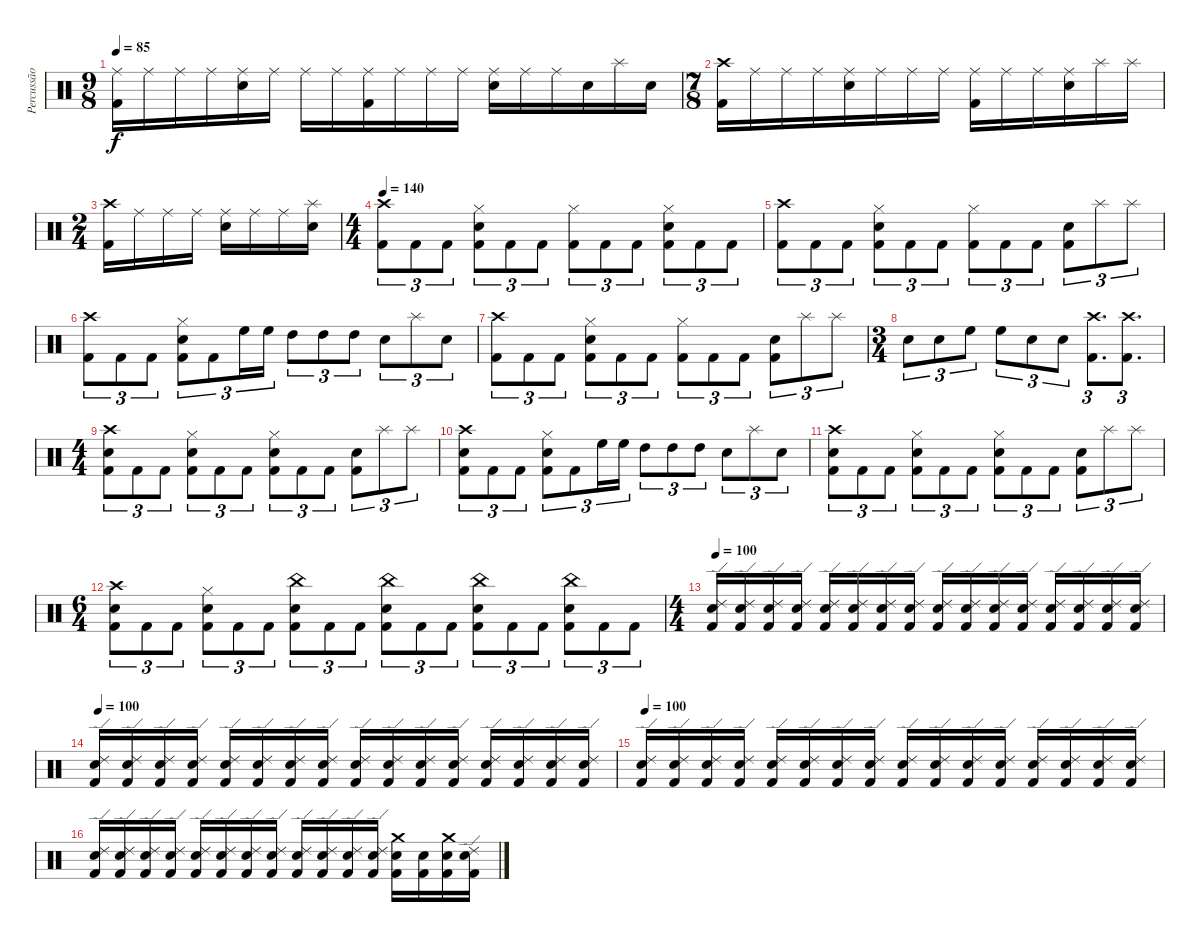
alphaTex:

\track ("Percussão" "Percussão") {instrument percussion}
\staff {score}
\articulation defaults
\ts (9 8)
\tempo 85
\clef neutral
\ks c
("Ride (middle)" "Kick (hit) 2").16{dy f} "Ride (middle)".16 "Ride (middle)".16 "Ride (middle)".16 ("Ride (middle)" "Electric Snare (hit)").16 "Ride (middle)".16 "Ride (middle)".16 "Ride (middle)".16 ("Ride (middle)" "Kick (hit) 2").16 "Ride (middle)".16 "Ride (middle)".16 "Ride (middle)".16 ("Ride (middle)" "Electric Snare (hit)").16 "Ride (middle)".16 "Ride (middle)".16 "Electric Snare (hit)".16 "Splash (hit)".16 "Electric Snare (hit)".16 |
\ts (7 8)
("Crash high (hit)" "Kick (hit) 2").16 "Ride (middle)".16 "Ride (middle)".16 "Ride (middle)".16 ("Ride (middle)" "Electric Snare (hit)").16 "Ride (middle)".16 "Ride (middle)".16 "Ride (middle)".16 ("Ride (middle)" "Kick (hit) 2").16 "Ride (middle)".16 "Ride (middle)".16 ("Ride (middle)" "Electric Snare (hit)").16 "Splash (hit)".16 "Splash (hit)".16 |
\ts (2 4)
("Crash high (hit)" "Kick (hit) 2").16 "Ride (middle)".16 "Ride (middle)".16 "Ride (middle)".16 ("Ride (middle)" "Electric Snare (hit)").16 "Ride (middle)".16 "Ride (middle)".16 ("Splash (hit)" "Electric Snare (hit)").16 |
\ts (4 4)
\tempo 140
("Crash high (hit)" "Kick (hit) 2").8{tu (3 2)} "Kick (hit) 2".8{tu (3 2)} "Kick (hit) 2".8{tu (3 2)} ("Hi-Hat (closed)" "Electric Snare (hit)" "Kick (hit) 2").8{tu (3 2)} "Kick (hit) 2".8{tu (3 2)} "Kick (hit) 2".8{tu (3 2)} ("Hi-Hat (closed)" "Kick (hit) 2").8{tu (3 2)} "Kick (hit) 2".8{tu (3 2)} "Kick (hit) 2".8{tu (3 2)} ("Hi-Hat (closed)" "Electric Snare (hit)" "Kick (hit) 2").8{tu (3 2)} "Kick (hit) 2".8{tu (3 2)} "Kick (hit) 2".8{tu (3 2)} |
("Crash high (hit)" "Kick (hit) 2").8{tu (3 2)} "Kick (hit) 2".8{tu (3 2)} "Kick (hit) 2".8{tu (3 2)} ("Hi-Hat (closed)" "Electric Snare (hit)" "Kick (hit) 2").8{tu (3 2)} "Kick (hit) 2".8{tu (3 2)} "Kick (hit) 2".8{tu (3 2)} ("Hi-Hat (closed)" "Kick (hit) 2").8{tu (3 2)} "Kick (hit) 2".8{tu (3 2)} "Kick (hit) 2".8{tu (3 2)} ("Electric Snare (hit)" "Kick (hit) 2").8{tu (3 2)} "Splash (hit)".8{tu (3 2)} "Splash (hit)".8{tu (3 2)} |
("Crash high (hit)" "Kick (hit) 2").8{tu (3 2)} "Kick (hit) 2".8{tu (3 2)} "Kick (hit) 2".8{tu (3 2)} ("Hi-Hat (closed)" "Electric Snare (hit)" "Kick (hit) 2").8{tu (3 2)} "Kick (hit) 2".8{tu (3 2)} "High Floor Tom (hit)".16{tu (3 2)} "High Floor Tom (hit)".16{tu (3 2)} "High Tom (hit)".8{tu (3 2)} "High Tom (hit)".8{tu (3 2)} "High Tom (hit)".8{tu (3 2)} "Electric Snare (hit)".8{tu (3 2)} "Splash (hit)".8{tu (3 2)} "Electric Snare (hit)".8{tu (3 2)} |
("Crash high (hit)" "Kick (hit) 2").8{tu (3 2)} "Kick (hit) 2".8{tu (3 2)} "Kick (hit) 2".8{tu (3 2)} ("Hi-Hat (closed)" "Electric Snare (hit)" "Kick (hit) 2").8{tu (3 2)} "Kick (hit) 2".8{tu (3 2)} "Kick (hit) 2".8{tu (3 2)} ("Hi-Hat (closed)" "Kick (hit) 2").8{tu (3 2)} "Kick (hit) 2".8{tu (3 2)} "Kick (hit) 2".8{tu (3 2)} ("Electric Snare (hit)" "Kick (hit) 2").8{tu (3 2)} "Splash (hit)".8{tu (3 2)} "Splash (hit)".8{tu (3 2)} |
\ts (3 4)
"Electric Snare (hit)".8{tu (3 2)} "Electric Snare (hit)".8{tu (3 2)} "High Floor Tom (hit)".8{tu (3 2)} "High Floor Tom (hit)".8{tu (3 2)} "Electric Snare (hit)".8{tu (3 2)} "Electric Snare (hit)".8{tu (3 2)} ("Crash high (hit)" "Kick (hit) 2").8{d tu (3 2)} ("Crash high (hit)" "Kick (hit) 2").8{d tu (3 2)} |
\ts (4 4)
("Crash high (hit)" "Electric Snare (hit)" "Kick (hit) 2").8{tu (3 2)} "Kick (hit) 2".8{tu (3 2)} "Kick (hit) 2".8{tu (3 2)} ("Hi-Hat (closed)" "Electric Snare (hit)" "Kick (hit) 2").8{tu (3 2)} "Kick (hit) 2".8{tu (3 2)} "Kick (hit) 2".8{tu (3 2)} ("Hi-Hat (closed)" "Electric Snare (hit)" "Kick (hit) 2").8{tu (3 2)} "Kick (hit) 2".8{tu (3 2)} "Kick (hit) 2".8{tu (3 2)} ("Electric Snare (hit)" "Kick (hit) 2").8{tu (3 2)} "Splash (hit)".8{tu (3 2)} "Splash (hit)".8{tu (3 2)} |
("Crash high (hit)" "Electric Snare (hit)" "Kick (hit) 2").8{tu (3 2)} "Kick (hit) 2".8{tu (3 2)} "Kick (hit) 2".8{tu (3 2)} ("Hi-Hat (closed)" "Electric Snare (hit)" "Kick (hit) 2").8{tu (3 2)} "Kick (hit) 2".8{tu (3 2)} "High Floor Tom (hit)".16{tu (3 2)} "High Floor Tom (hit)".16{tu (3 2)} "High Tom (hit)".8{tu (3 2)} "High Tom (hit)".8{tu (3 2)} "High Tom (hit)".8{tu (3 2)} "Electric Snare (hit)".8{tu (3 2)} "Splash (hit)".8{tu (3 2)} "Electric Snare (hit)".8{tu (3 2)} |
("Crash high (hit)" "Electric Snare (hit)" "Kick (hit) 2").8{tu (3 2)} "Kick (hit) 2".8{tu (3 2)} "Kick (hit) 2".8{tu (3 2)} ("Hi-Hat (closed)" "Electric Snare (hit)" "Kick (hit) 2").8{tu (3 2)} "Kick (hit) 2".8{tu (3 2)} "Kick (hit) 2".8{tu (3 2)} ("Hi-Hat (closed)" "Electric Snare (hit)" "Kick (hit) 2").8{tu (3 2)} "Kick (hit) 2".8{tu (3 2)} "Kick (hit) 2".8{tu (3 2)} ("Electric Snare (hit)" "Kick (hit) 2").8{tu (3 2)} "Splash (hit)".8{tu (3 2)} "Splash (hit)".8{tu (3 2)} |
\ts (6 4)
("Crash high (hit)" "Electric Snare (hit)" "Kick (hit) 2").8{tu (3 2)} "Kick (hit) 2".8{tu (3 2)} "Kick (hit) 2".8{tu (3 2)} ("Hi-Hat (closed)" "Electric Snare (hit)" "Kick (hit) 2").8{tu (3 2)} "Kick (hit) 2".8{tu (3 2)} "Kick (hit) 2".8{tu (3 2)} ("China (hit)" "Electric Snare (hit)" "Kick (hit) 2").8{tu (3 2)} "Kick (hit) 2".8{tu (3 2)} "Kick (hit) 2".8{tu (3 2)} ("China (hit)" "Electric Snare (hit)" "Kick (hit) 2").8{tu (3 2)} "Kick (hit) 2".8{tu (3 2)} "Kick (hit) 2".8{tu (3 2)} ("China (hit)" "Electric Snare (hit)" "Kick (hit) 2").8{tu (3 2)} "Kick (hit) 2".8{tu (3 2)} "Kick (hit) 2".8{tu (3 2)} ("China (hit)" "Electric Snare (hit)" "Kick (hit) 2").8{tu (3 2)} "Kick (hit) 2".8{tu (3 2)} "Kick (hit) 2".8{tu (3 2)} |
\ts (4 4)
\tempo 100
("Ride (edge) 2" "Electric Snare (hit)" "Kick (hit) 2").16 ("Ride (edge) 2" "Electric Snare (hit)" "Kick (hit) 2").16 ("Ride (edge) 2" "Electric Snare (hit)" "Kick (hit) 2").16 ("Ride (edge) 2" "Electric Snare (hit)" "Kick (hit) 2").16 ("Ride (edge) 2" "Electric Snare (hit)" "Kick (hit) 2").16 ("Ride (edge) 2" "Electric Snare (hit)" "Kick (hit) 2").16 ("Ride (edge) 2" "Electric Snare (hit)" "Kick (hit) 2").16 ("Ride (edge) 2" "Electric Snare (hit)" "Kick (hit) 2").16 ("Ride (edge) 2" "Electric Snare (hit)" "Kick (hit) 2").16 ("Ride (edge) 2" "Electric Snare (hit)" "Kick (hit) 2").16 ("Ride (edge) 2" "Electric Snare (hit)" "Kick (hit) 2").16 ("Ride (edge) 2" "Electric Snare (hit)" "Kick (hit) 2").16 ("Ride (edge) 2" "Electric Snare (hit)" "Kick (hit) 2").16 ("Ride (edge) 2" "Electric Snare (hit)" "Kick (hit) 2").16 ("Ride (edge) 2" "Electric Snare (hit)" "Kick (hit) 2").16 ("Ride (edge) 2" "Electric Snare (hit)" "Kick (hit) 2").16 |
\tempo 100
("Ride (edge) 2" "Electric Snare (hit)" "Kick (hit) 2").16 ("Ride (edge) 2" "Electric Snare (hit)" "Kick (hit) 2").16 ("Ride (edge) 2" "Electric Snare (hit)" "Kick (hit) 2").16 ("Ride (edge) 2" "Electric Snare (hit)" "Kick (hit) 2").16 ("Ride (edge) 2" "Electric Snare (hit)" "Kick (hit) 2").16 ("Ride (edge) 2" "Electric Snare (hit)" "Kick (hit) 2").16 ("Ride (edge) 2" "Electric Snare (hit)" "Kick (hit) 2").16 ("Ride (edge) 2" "Electric Snare (hit)" "Kick (hit) 2").16 ("Ride (edge) 2" "Electric Snare (hit)" "Kick (hit) 2").16 ("Ride (edge) 2" "Electric Snare (hit)" "Kick (hit) 2").16 ("Ride (edge) 2" "Electric Snare (hit)" "Kick (hit) 2").16 ("Ride (edge) 2" "Electric Snare (hit)" "Kick (hit) 2").16 ("Ride (edge) 2" "Electric Snare (hit)" "Kick (hit) 2").16 ("Ride (edge) 2" "Electric Snare (hit)" "Kick (hit) 2").16 ("Ride (edge) 2" "Electric Snare (hit)" "Kick (hit) 2").16 ("Ride (edge) 2" "Electric Snare (hit)" "Kick (hit) 2").16 |
\tempo 100
("Ride (edge) 2" "Electric Snare (hit)" "Kick (hit) 2").16 ("Ride (edge) 2" "Electric Snare (hit)" "Kick (hit) 2").16 ("Ride (edge) 2" "Electric Snare (hit)" "Kick (hit) 2").16 ("Ride (edge) 2" "Electric Snare (hit)" "Kick (hit) 2").16 ("Ride (edge) 2" "Electric Snare (hit)" "Kick (hit) 2").16 ("Ride (edge) 2" "Electric Snare (hit)" "Kick (hit) 2").16 ("Ride (edge) 2" "Electric Snare (hit)" "Kick (hit) 2").16 ("Ride (edge) 2" "Electric Snare (hit)" "Kick (hit) 2").16 ("Ride (edge) 2" "Electric Snare (hit)" "Kick (hit) 2").16 ("Ride (edge) 2" "Electric Snare (hit)" "Kick (hit) 2").16 ("Ride (edge) 2" "Electric Snare (hit)" "Kick (hit) 2").16 ("Ride (edge) 2" "Electric Snare (hit)" "Kick (hit) 2").16 ("Ride (edge) 2" "Electric Snare (hit)" "Kick (hit) 2").16 ("Ride (edge) 2" "Electric Snare (hit)" "Kick (hit) 2").16 ("Ride (edge) 2" "Electric Snare (hit)" "Kick (hit) 2").16 ("Ride (edge) 2" "Electric Snare (hit)" "Kick (hit) 2").16 |
("Ride (edge) 2" "Electric Snare (hit)" "Kick (hit) 2").16 ("Ride (edge) 2" "Electric Snare (hit)" "Kick (hit) 2").16 ("Ride (edge) 2" "Electric Snare (hit)" "Kick (hit) 2").16 ("Ride (edge) 2" "Electric Snare (hit)" "Kick (hit) 2").16 ("Ride (edge) 2" "Electric Snare (hit)" "Kick (hit) 2").16 ("Ride (edge) 2" "Electric Snare (hit)" "Kick (hit) 2").16 ("Ride (edge) 2" "Electric Snare (hit)" "Kick (hit) 2").16 ("Ride (edge) 2" "Electric Snare (hit)" "Kick (hit) 2").16 ("Ride (edge) 2" "Electric Snare (hit)" "Kick (hit) 2").16 ("Ride (edge) 2" "Electric Snare (hit)" "Kick (hit) 2").16 ("Ride (edge) 2" "Electric Snare (hit)" "Kick (hit) 2").16 ("Ride (edge) 2" "Electric Snare (hit)" "Kick (hit) 2").16 ("Crash medium (hit)" "Electric Snare (hit)" "Kick (hit) 2").16 ("Electric Snare (hit)" "Kick (hit) 2").16 ("Crash medium (hit)" "Electric Snare (hit)" "Kick (hit) 2").16 ("Ride (edge) 2" "Electric Snare (hit)" "Kick (hit) 2").16
